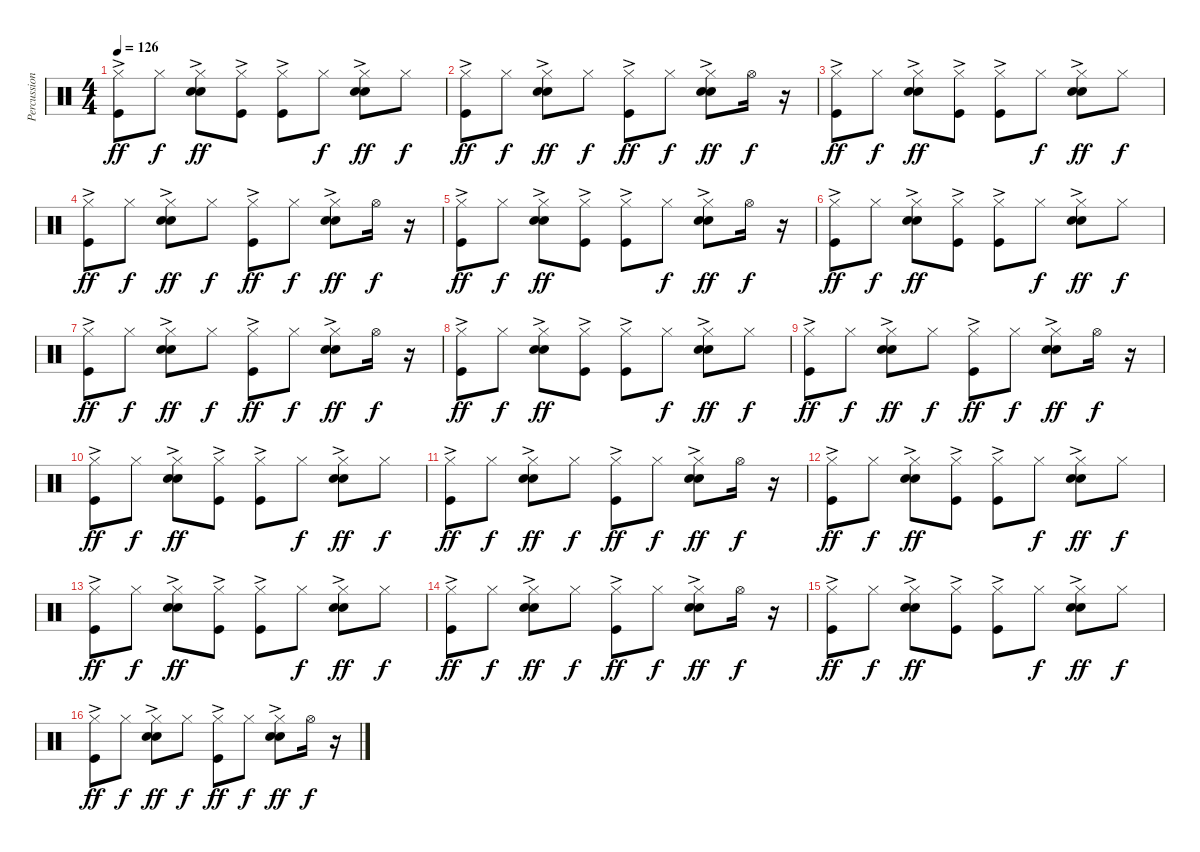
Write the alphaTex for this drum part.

\track ("Percussion" "Percussion") {instrument percussion}
\staff {score}
\articulation defaults
\ts (4 4)
\tempo 126
\clef neutral
\ks c
("Hi-Hat (closed)" "Kick (hit)"{ac}).8{dy ff} "Hi-Hat (closed)".8{dy f} ("Hi-Hat (closed)" "Hand Clap (hit)"{ac} "Snare (hit) 2"{ac}).8{dy ff} ("Hi-Hat (closed)" "Kick (hit)"{ac}).8 ("Hi-Hat (closed)" "Kick (hit)"{ac}).8 "Hi-Hat (closed)".8{dy f} ("Hi-Hat (closed)" "Hand Clap (hit)"{ac} "Snare (hit) 2"{ac}).8{dy ff} "Hi-Hat (closed)".8{dy f} |
("Hi-Hat (closed)" "Kick (hit)"{ac}).8{dy ff} "Hi-Hat (closed)".8{dy f} ("Hi-Hat (closed)" "Hand Clap (hit)"{ac} "Snare (hit) 2"{ac}).8{dy ff} "Hi-Hat (closed)".8{dy f} ("Hi-Hat (closed)" "Kick (hit)"{ac}).8{dy ff} "Hi-Hat (closed)".8{dy f} ("Hi-Hat (closed)" "Hand Clap (hit)"{ac} "Snare (hit) 2"{ac}).8{dy ff} "Hi-Hat (open)".16{dy f} r.16 |
("Hi-Hat (closed)" "Kick (hit)"{ac}).8{dy ff} "Hi-Hat (closed)".8{dy f} ("Hi-Hat (closed)" "Hand Clap (hit)"{ac} "Snare (hit) 2"{ac}).8{dy ff} ("Hi-Hat (closed)" "Kick (hit)"{ac}).8 ("Hi-Hat (closed)" "Kick (hit)"{ac}).8 "Hi-Hat (closed)".8{dy f} ("Hi-Hat (closed)" "Hand Clap (hit)"{ac} "Snare (hit) 2"{ac}).8{dy ff} "Hi-Hat (closed)".8{dy f} |
("Hi-Hat (closed)" "Kick (hit)"{ac}).8{dy ff} "Hi-Hat (closed)".8{dy f} ("Hi-Hat (closed)" "Hand Clap (hit)"{ac} "Snare (hit) 2"{ac}).8{dy ff} "Hi-Hat (closed)".8{dy f} ("Hi-Hat (closed)" "Kick (hit)"{ac}).8{dy ff} "Hi-Hat (closed)".8{dy f} ("Hi-Hat (closed)" "Hand Clap (hit)"{ac} "Snare (hit) 2"{ac}).8{dy ff} "Hi-Hat (open)".16{dy f} r.16 |
("Hi-Hat (closed)" "Kick (hit)"{ac}).8{dy ff} "Hi-Hat (closed)".8{dy f} ("Hi-Hat (closed)" "Hand Clap (hit)"{ac} "Snare (hit) 2"{ac}).8{dy ff} ("Hi-Hat (closed)" "Kick (hit)"{ac}).8 ("Hi-Hat (closed)" "Kick (hit)"{ac}).8 "Hi-Hat (closed)".8{dy f} ("Hi-Hat (closed)" "Hand Clap (hit)"{ac} "Snare (hit) 2"{ac}).8{dy ff} "Hi-Hat (open)".16{dy f} r.16 |
("Hi-Hat (closed)" "Kick (hit)"{ac}).8{dy ff} "Hi-Hat (closed)".8{dy f} ("Hi-Hat (closed)" "Hand Clap (hit)"{ac} "Snare (hit) 2"{ac}).8{dy ff} ("Hi-Hat (closed)" "Kick (hit)"{ac}).8 ("Hi-Hat (closed)" "Kick (hit)"{ac}).8 "Hi-Hat (closed)".8{dy f} ("Hi-Hat (closed)" "Hand Clap (hit)"{ac} "Snare (hit) 2"{ac}).8{dy ff} "Hi-Hat (closed)".8{dy f} |
("Hi-Hat (closed)" "Kick (hit)"{ac}).8{dy ff} "Hi-Hat (closed)".8{dy f} ("Hi-Hat (closed)" "Hand Clap (hit)"{ac} "Snare (hit) 2"{ac}).8{dy ff} "Hi-Hat (closed)".8{dy f} ("Hi-Hat (closed)" "Kick (hit)"{ac}).8{dy ff} "Hi-Hat (closed)".8{dy f} ("Hi-Hat (closed)" "Hand Clap (hit)"{ac} "Snare (hit) 2"{ac}).8{dy ff} "Hi-Hat (open)".16{dy f} r.16 |
("Hi-Hat (closed)" "Kick (hit)"{ac}).8{dy ff} "Hi-Hat (closed)".8{dy f} ("Hi-Hat (closed)" "Hand Clap (hit)"{ac} "Snare (hit) 2"{ac}).8{dy ff} ("Hi-Hat (closed)" "Kick (hit)"{ac}).8 ("Hi-Hat (closed)" "Kick (hit)"{ac}).8 "Hi-Hat (closed)".8{dy f} ("Hi-Hat (closed)" "Hand Clap (hit)"{ac} "Snare (hit) 2"{ac}).8{dy ff} "Hi-Hat (closed)".8{dy f} |
("Hi-Hat (closed)" "Kick (hit)"{ac}).8{dy ff} "Hi-Hat (closed)".8{dy f} ("Hi-Hat (closed)" "Hand Clap (hit)"{ac} "Snare (hit) 2"{ac}).8{dy ff} "Hi-Hat (closed)".8{dy f} ("Hi-Hat (closed)" "Kick (hit)"{ac}).8{dy ff} "Hi-Hat (closed)".8{dy f} ("Hi-Hat (closed)" "Hand Clap (hit)"{ac} "Snare (hit) 2"{ac}).8{dy ff} "Hi-Hat (open)".16{dy f} r.16 |
("Hi-Hat (closed)" "Kick (hit)"{ac}).8{dy ff} "Hi-Hat (closed)".8{dy f} ("Hi-Hat (closed)" "Hand Clap (hit)"{ac} "Snare (hit) 2"{ac}).8{dy ff} ("Hi-Hat (closed)" "Kick (hit)"{ac}).8 ("Hi-Hat (closed)" "Kick (hit)"{ac}).8 "Hi-Hat (closed)".8{dy f} ("Hi-Hat (closed)" "Hand Clap (hit)"{ac} "Snare (hit) 2"{ac}).8{dy ff} "Hi-Hat (closed)".8{dy f} |
("Hi-Hat (closed)" "Kick (hit)"{ac}).8{dy ff} "Hi-Hat (closed)".8{dy f} ("Hi-Hat (closed)" "Hand Clap (hit)"{ac} "Snare (hit) 2"{ac}).8{dy ff} "Hi-Hat (closed)".8{dy f} ("Hi-Hat (closed)" "Kick (hit)"{ac}).8{dy ff} "Hi-Hat (closed)".8{dy f} ("Hi-Hat (closed)" "Hand Clap (hit)"{ac} "Snare (hit) 2"{ac}).8{dy ff} "Hi-Hat (open)".16{dy f} r.16 |
("Hi-Hat (closed)" "Kick (hit)"{ac}).8{dy ff} "Hi-Hat (closed)".8{dy f} ("Hi-Hat (closed)" "Hand Clap (hit)"{ac} "Snare (hit) 2"{ac}).8{dy ff} ("Hi-Hat (closed)" "Kick (hit)"{ac}).8 ("Hi-Hat (closed)" "Kick (hit)"{ac}).8 "Hi-Hat (closed)".8{dy f} ("Hi-Hat (closed)" "Hand Clap (hit)"{ac} "Snare (hit) 2"{ac}).8{dy ff} "Hi-Hat (closed)".8{dy f} |
("Hi-Hat (closed)" "Kick (hit)"{ac}).8{dy ff} "Hi-Hat (closed)".8{dy f} ("Hi-Hat (closed)" "Hand Clap (hit)"{ac} "Snare (hit) 2"{ac}).8{dy ff} ("Hi-Hat (closed)" "Kick (hit)"{ac}).8 ("Hi-Hat (closed)" "Kick (hit)"{ac}).8 "Hi-Hat (closed)".8{dy f} ("Hi-Hat (closed)" "Hand Clap (hit)"{ac} "Snare (hit) 2"{ac}).8{dy ff} "Hi-Hat (closed)".8{dy f} |
("Hi-Hat (closed)" "Kick (hit)"{ac}).8{dy ff} "Hi-Hat (closed)".8{dy f} ("Hi-Hat (closed)" "Hand Clap (hit)"{ac} "Snare (hit) 2"{ac}).8{dy ff} "Hi-Hat (closed)".8{dy f} ("Hi-Hat (closed)" "Kick (hit)"{ac}).8{dy ff} "Hi-Hat (closed)".8{dy f} ("Hi-Hat (closed)" "Hand Clap (hit)"{ac} "Snare (hit) 2"{ac}).8{dy ff} "Hi-Hat (open)".16{dy f} r.16 |
("Hi-Hat (closed)" "Kick (hit)"{ac}).8{dy ff} "Hi-Hat (closed)".8{dy f} ("Hi-Hat (closed)" "Hand Clap (hit)"{ac} "Snare (hit) 2"{ac}).8{dy ff} ("Hi-Hat (closed)" "Kick (hit)"{ac}).8 ("Hi-Hat (closed)" "Kick (hit)"{ac}).8 "Hi-Hat (closed)".8{dy f} ("Hi-Hat (closed)" "Hand Clap (hit)"{ac} "Snare (hit) 2"{ac}).8{dy ff} "Hi-Hat (closed)".8{dy f} |
("Hi-Hat (closed)" "Kick (hit)"{ac}).8{dy ff} "Hi-Hat (closed)".8{dy f} ("Hi-Hat (closed)" "Hand Clap (hit)"{ac} "Snare (hit) 2"{ac}).8{dy ff} "Hi-Hat (closed)".8{dy f} ("Hi-Hat (closed)" "Kick (hit)"{ac}).8{dy ff} "Hi-Hat (closed)".8{dy f} ("Hi-Hat (closed)" "Hand Clap (hit)"{ac} "Snare (hit) 2"{ac}).8{dy ff} "Hi-Hat (open)".16{dy f} r.16
